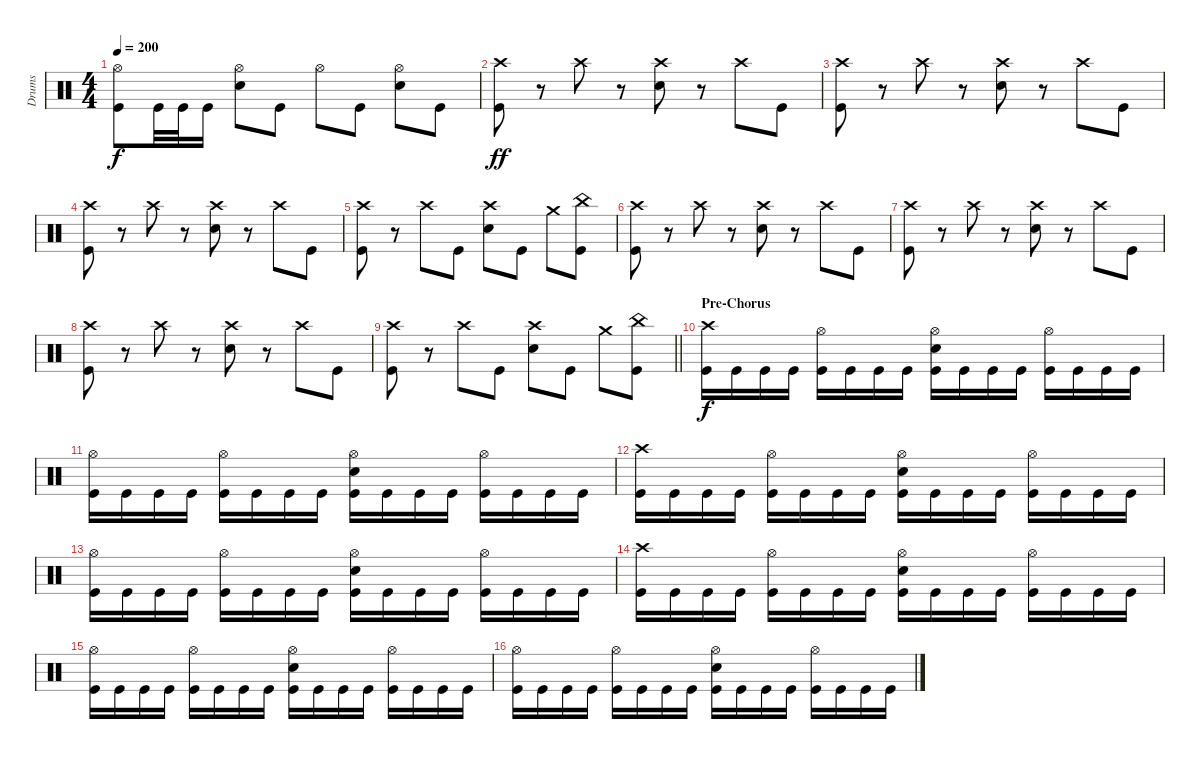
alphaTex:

\track ("Drums" "Drums") {instrument percussion}
\staff {score}
\articulation defaults
\ts (4 4)
\tempo 200
\clef neutral
\ks c
("Hi-Hat (open)" "Kick (hit)").8{dy f} "Kick (hit)".32 "Kick (hit)".32 "Kick (hit)".16 ("Hi-Hat (open)" "Snare (hit) 2").8 "Kick (hit)".8 "Hi-Hat (open)".8 "Kick (hit)".8 ("Hi-Hat (open)" "Snare (hit) 2").8 "Kick (hit)".8 |
("Crash high (hit)" "Kick (hit)").8{dy ff} r.8 "Crash high (hit)".8 r.8 ("Crash high (hit)" "Snare (hit) 2").8 r.8 "Crash high (hit)".8 "Kick (hit)".8 |
("Crash high (hit)" "Kick (hit)").8 r.8 "Crash high (hit)".8 r.8 ("Crash high (hit)" "Snare (hit) 2").8 r.8 "Crash high (hit)".8 "Kick (hit)".8 |
("Crash high (hit)" "Kick (hit)").8 r.8 "Crash high (hit)".8 r.8 ("Crash high (hit)" "Snare (hit) 2").8 r.8 "Crash high (hit)".8 "Kick (hit)".8 |
("Crash high (hit)" "Kick (hit)").8 r.8 "Crash high (hit)".8 "Kick (hit)".8 ("Crash high (hit)" "Snare (hit) 2").8 "Kick (hit)".8 "Crash medium (hit)".8 ("China (hit)" "Kick (hit)").8 |
("Crash high (hit)" "Kick (hit)").8 r.8 "Crash high (hit)".8 r.8 ("Crash high (hit)" "Snare (hit) 2").8 r.8 "Crash high (hit)".8 "Kick (hit)".8 |
("Crash high (hit)" "Kick (hit)").8 r.8 "Crash high (hit)".8 r.8 ("Crash high (hit)" "Snare (hit) 2").8 r.8 "Crash high (hit)".8 "Kick (hit)".8 |
("Crash high (hit)" "Kick (hit)").8 r.8 "Crash high (hit)".8 r.8 ("Crash high (hit)" "Snare (hit) 2").8 r.8 "Crash high (hit)".8 "Kick (hit)".8 |
\barLineRight lightlight
("Crash high (hit)" "Kick (hit)").8 r.8 "Crash high (hit)".8 "Kick (hit)".8 ("Crash high (hit)" "Snare (hit) 2").8 "Kick (hit)".8 "Crash medium (hit)".8 ("China (hit)" "Kick (hit)").8 |
\section ("" "Pre-Chorus")
("Crash high (hit)" "Kick (hit)").16{dy f} "Kick (hit)".16 "Kick (hit)".16 "Kick (hit)".16 ("Hi-Hat (open)" "Kick (hit)").16 "Kick (hit)".16 "Kick (hit)".16 "Kick (hit)".16 ("Hi-Hat (open)" "Snare (hit) 2" "Kick (hit)").16 "Kick (hit)".16 "Kick (hit)".16 "Kick (hit)".16 ("Hi-Hat (open)" "Kick (hit)").16 "Kick (hit)".16 "Kick (hit)".16 "Kick (hit)".16 |
("Hi-Hat (open)" "Kick (hit)").16 "Kick (hit)".16 "Kick (hit)".16 "Kick (hit)".16 ("Hi-Hat (open)" "Kick (hit)").16 "Kick (hit)".16 "Kick (hit)".16 "Kick (hit)".16 ("Hi-Hat (open)" "Snare (hit) 2" "Kick (hit)").16 "Kick (hit)".16 "Kick (hit)".16 "Kick (hit)".16 ("Hi-Hat (open)" "Kick (hit)").16 "Kick (hit)".16 "Kick (hit)".16 "Kick (hit)".16 |
("Crash high (hit)" "Kick (hit)").16 "Kick (hit)".16 "Kick (hit)".16 "Kick (hit)".16 ("Hi-Hat (open)" "Kick (hit)").16 "Kick (hit)".16 "Kick (hit)".16 "Kick (hit)".16 ("Hi-Hat (open)" "Snare (hit) 2" "Kick (hit)").16 "Kick (hit)".16 "Kick (hit)".16 "Kick (hit)".16 ("Hi-Hat (open)" "Kick (hit)").16 "Kick (hit)".16 "Kick (hit)".16 "Kick (hit)".16 |
("Hi-Hat (open)" "Kick (hit)").16 "Kick (hit)".16 "Kick (hit)".16 "Kick (hit)".16 ("Hi-Hat (open)" "Kick (hit)").16 "Kick (hit)".16 "Kick (hit)".16 "Kick (hit)".16 ("Hi-Hat (open)" "Snare (hit) 2" "Kick (hit)").16 "Kick (hit)".16 "Kick (hit)".16 "Kick (hit)".16 ("Hi-Hat (open)" "Kick (hit)").16 "Kick (hit)".16 "Kick (hit)".16 "Kick (hit)".16 |
("Crash high (hit)" "Kick (hit)").16 "Kick (hit)".16 "Kick (hit)".16 "Kick (hit)".16 ("Hi-Hat (open)" "Kick (hit)").16 "Kick (hit)".16 "Kick (hit)".16 "Kick (hit)".16 ("Hi-Hat (open)" "Snare (hit) 2" "Kick (hit)").16 "Kick (hit)".16 "Kick (hit)".16 "Kick (hit)".16 ("Hi-Hat (open)" "Kick (hit)").16 "Kick (hit)".16 "Kick (hit)".16 "Kick (hit)".16 |
("Hi-Hat (open)" "Kick (hit)").16 "Kick (hit)".16 "Kick (hit)".16 "Kick (hit)".16 ("Hi-Hat (open)" "Kick (hit)").16 "Kick (hit)".16 "Kick (hit)".16 "Kick (hit)".16 ("Hi-Hat (open)" "Snare (hit) 2" "Kick (hit)").16 "Kick (hit)".16 "Kick (hit)".16 "Kick (hit)".16 ("Hi-Hat (open)" "Kick (hit)").16 "Kick (hit)".16 "Kick (hit)".16 "Kick (hit)".16 |
("Hi-Hat (open)" "Kick (hit)").16 "Kick (hit)".16 "Kick (hit)".16 "Kick (hit)".16 ("Hi-Hat (open)" "Kick (hit)").16 "Kick (hit)".16 "Kick (hit)".16 "Kick (hit)".16 ("Hi-Hat (open)" "Snare (hit) 2" "Kick (hit)").16 "Kick (hit)".16 "Kick (hit)".16 "Kick (hit)".16 ("Hi-Hat (open)" "Kick (hit)").16 "Kick (hit)".16 "Kick (hit)".16 "Kick (hit)".16
